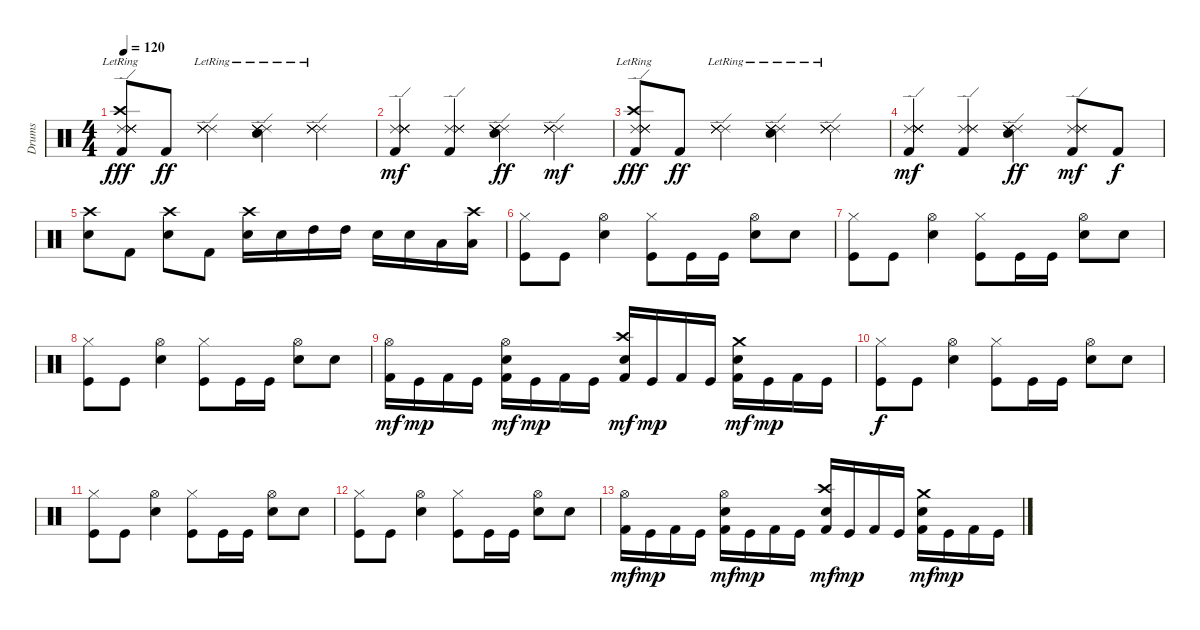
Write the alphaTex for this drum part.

\track ("Drums" "Drums") {instrument percussion}
\staff {score}
\articulation defaults
\ts (4 4)
\tempo 120
\clef neutral
\ks c
("Kick (hit) 2" "Crash high (hit)"{lr} "Ride (edge) 2" "Ride (edge) 2" "Ride (edge) 2" "Ride (edge) 2").8{dy fff} "Kick (hit) 2".8{dy ff} ("Ride (edge) 2" "Ride (edge) 2" "Ride (edge) 2" "Ride (edge) 2"{lr}).4 ("Ride (edge) 2" "Ride (edge) 2" "Ride (edge) 2" "Ride (edge) 2"{lr} "Snare (hit) 2"{lr}).4 ("Ride (edge) 2" "Ride (edge) 2" "Ride (edge) 2" "Ride (edge) 2"{lr}).4 |
("Kick (hit) 2" "Ride (edge) 2" "Ride (edge) 2" "Ride (edge) 2" "Ride (edge) 2" "Ride (edge) 2").4{dy mf} ("Kick (hit) 2" "Ride (edge) 2" "Ride (edge) 2" "Ride (edge) 2").4 ("Ride (edge) 2" "Ride (edge) 2" "Ride (edge) 2" "Ride (edge) 2" "Ride (edge) 2" "Snare (hit) 2").4{dy ff} ("Ride (edge) 2" "Ride (edge) 2" "Ride (edge) 2" "Ride (edge) 2").4{dy mf} |
("Kick (hit) 2" "Crash high (hit)"{lr} "Ride (edge) 2" "Ride (edge) 2" "Ride (edge) 2" "Ride (edge) 2").8{dy fff} "Kick (hit) 2".8{dy ff} ("Ride (edge) 2" "Ride (edge) 2" "Ride (edge) 2" "Ride (edge) 2"{lr}).4 ("Ride (edge) 2" "Ride (edge) 2" "Ride (edge) 2" "Ride (edge) 2"{lr} "Snare (hit) 2"{lr}).4 ("Ride (edge) 2" "Ride (edge) 2" "Ride (edge) 2" "Ride (edge) 2"{lr}).4 |
("Kick (hit) 2" "Ride (edge) 2" "Ride (edge) 2" "Ride (edge) 2" "Ride (edge) 2" "Ride (edge) 2").4{dy mf} ("Kick (hit) 2" "Ride (edge) 2" "Ride (edge) 2" "Ride (edge) 2").4 ("Ride (edge) 2" "Ride (edge) 2" "Ride (edge) 2" "Ride (edge) 2" "Ride (edge) 2" "Snare (hit) 2").4{dy ff} ("Kick (hit) 2" "Ride (edge) 2" "Ride (edge) 2" "Ride (edge) 2").8{dy mf} "Kick (hit) 2".8{dy f} |
("Crash high (hit)" "Snare (hit) 2").8 "Kick (hit) 2".8 ("Crash high (hit)" "Snare (hit) 2").8 "Kick (hit) 2".8 ("Crash high (hit)" "Snare (hit) 2").16 "Snare (hit) 2".16 "High Tom (hit)".16 "High Tom (hit)".16 "Snare (hit) 2".16 "Snare (hit) 2".16 "Low Tom (hit)".16 ("Crash high (hit)" "Low Tom (hit)").16 |
("Hi-Hat (closed)" "Kick (hit)").8 "Kick (hit)".8 ("Hi-Hat (open)" "Snare (hit) 2").4 ("Hi-Hat (closed)" "Kick (hit)").8 "Kick (hit)".16 "Kick (hit)".16 ("Hi-Hat (open)" "Snare (hit) 2").8 "Snare (hit) 2".8 |
("Hi-Hat (closed)" "Kick (hit)").8 "Kick (hit)".8 ("Hi-Hat (open)" "Snare (hit) 2").4 ("Hi-Hat (closed)" "Kick (hit)").8 "Kick (hit)".16 "Kick (hit)".16 ("Hi-Hat (open)" "Snare (hit) 2").8 "Snare (hit) 2".8 |
("Hi-Hat (closed)" "Kick (hit)").8 "Kick (hit)".8 ("Hi-Hat (open)" "Snare (hit) 2").4 ("Hi-Hat (closed)" "Kick (hit)").8 "Kick (hit)".16 "Kick (hit)".16 ("Hi-Hat (open)" "Snare (hit) 2").8 "Snare (hit) 2".8 |
("Hi-Hat (open)" "Kick (hit) 2").16{dy mf} "Kick (hit)".16{dy mp} "Kick (hit) 2".16 "Kick (hit)".16 ("Hi-Hat (open)" "Snare (hit) 2" "Kick (hit) 2").16{dy mf} "Kick (hit)".16{dy mp} "Kick (hit) 2".16 "Kick (hit)".16 ("Crash high (hit)" "Snare (hit) 2" "Kick (hit) 2").16{dy mf} "Kick (hit)".16{dy mp} "Kick (hit) 2".16 "Kick (hit)".16 ("Crash medium (hit)" "Snare (hit) 2" "Kick (hit) 2").16{dy mf} "Kick (hit)".16{dy mp} "Kick (hit) 2".16 "Kick (hit)".16 |
("Hi-Hat (closed)" "Kick (hit)").8{dy f} "Kick (hit)".8 ("Hi-Hat (open)" "Snare (hit) 2").4 ("Hi-Hat (closed)" "Kick (hit)").8 "Kick (hit)".16 "Kick (hit)".16 ("Hi-Hat (open)" "Snare (hit) 2").8 "Snare (hit) 2".8 |
("Hi-Hat (closed)" "Kick (hit)").8 "Kick (hit)".8 ("Hi-Hat (open)" "Snare (hit) 2").4 ("Hi-Hat (closed)" "Kick (hit)").8 "Kick (hit)".16 "Kick (hit)".16 ("Hi-Hat (open)" "Snare (hit) 2").8 "Snare (hit) 2".8 |
("Hi-Hat (closed)" "Kick (hit)").8 "Kick (hit)".8 ("Hi-Hat (open)" "Snare (hit) 2").4 ("Hi-Hat (closed)" "Kick (hit)").8 "Kick (hit)".16 "Kick (hit)".16 ("Hi-Hat (open)" "Snare (hit) 2").8 "Snare (hit) 2".8 |
("Hi-Hat (open)" "Kick (hit) 2").16{dy mf} "Kick (hit)".16{dy mp} "Kick (hit) 2".16 "Kick (hit)".16 ("Hi-Hat (open)" "Snare (hit) 2" "Kick (hit) 2").16{dy mf} "Kick (hit)".16{dy mp} "Kick (hit) 2".16 "Kick (hit)".16 ("Crash high (hit)" "Snare (hit) 2" "Kick (hit) 2").16{dy mf} "Kick (hit)".16{dy mp} "Kick (hit) 2".16 "Kick (hit)".16 ("Crash medium (hit)" "Snare (hit) 2" "Kick (hit) 2").16{dy mf} "Kick (hit)".16{dy mp} "Kick (hit) 2".16 "Kick (hit)".16
